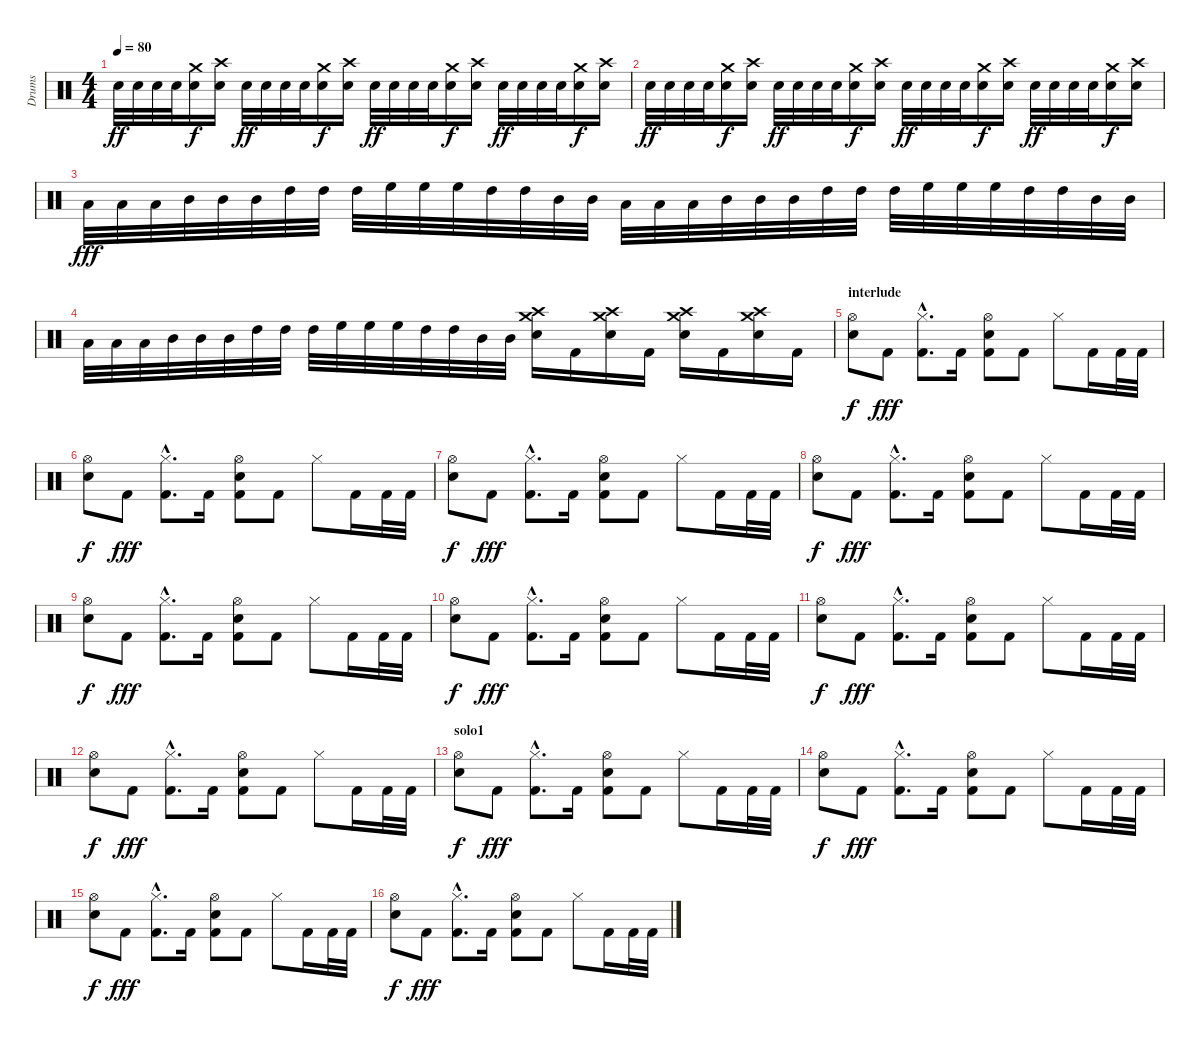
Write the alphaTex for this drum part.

\track ("Drums" "Drums") {instrument percussion}
\staff {score}
\articulation defaults
\ts (4 4)
\tempo 80
\clef neutral
\ks c "Electric Snare (hit)".32{dy ff} "Electric Snare (hit)".32 "Electric Snare (hit)".32 "Electric Snare (hit)".32
("Snare (hit) 2" "Crash medium (hit)").16{dy f} ("Snare (hit) 2" "Crash high (hit)").16 "Electric Snare (hit)".32{dy ff} "Electric Snare (hit)".32 "Electric Snare (hit)".32 "Electric Snare (hit)".32 ("Snare (hit) 2" "Crash medium (hit)").16{dy f} ("Snare (hit) 2" "Crash high (hit)").16 "Electric Snare (hit)".32{dy ff} "Electric Snare (hit)".32 "Electric Snare (hit)".32 "Electric Snare (hit)".32 ("Snare (hit) 2" "Crash medium (hit)").16{dy f} ("Snare (hit) 2" "Crash high (hit)").16 "Electric Snare (hit)".32{dy ff} "Electric Snare (hit)".32 "Electric Snare (hit)".32 "Electric Snare (hit)".32 ("Snare (hit) 2" "Crash medium (hit)").16{dy f} ("Snare (hit) 2" "Crash high (hit)").16 |
"Electric Snare (hit)".32{dy ff} "Electric Snare (hit)".32 "Electric Snare (hit)".32 "Electric Snare (hit)".32 ("Snare (hit) 2" "Crash medium (hit)").16{dy f} ("Snare (hit) 2" "Crash high (hit)").16 "Electric Snare (hit)".32{dy ff} "Electric Snare (hit)".32 "Electric Snare (hit)".32 "Electric Snare (hit)".32 ("Snare (hit) 2" "Crash medium (hit)").16{dy f} ("Snare (hit) 2" "Crash high (hit)").16 "Electric Snare (hit)".32{dy ff} "Electric Snare (hit)".32 "Electric Snare (hit)".32 "Electric Snare (hit)".32 ("Snare (hit) 2" "Crash medium (hit)").16{dy f} ("Snare (hit) 2" "Crash high (hit)").16 "Electric Snare (hit)".32{dy ff} "Electric Snare (hit)".32 "Electric Snare (hit)".32 "Electric Snare (hit)".32 ("Snare (hit) 2" "Crash medium (hit)").16{dy f} ("Snare (hit) 2" "Crash high (hit)").16 |
"Low Tom (hit)".32{dy fff} "Low Tom (hit)".32 "Low Tom (hit)".32 "Mid Tom (hit)".32 "Mid Tom (hit)".32 "Mid Tom (hit)".32 "High Tom (hit)".32 "High Tom (hit)".32 "High Tom (hit)".32 "High Floor Tom (hit)".32 "High Floor Tom (hit)".32 "High Floor Tom (hit)".32 "High Tom (hit)".32 "High Tom (hit)".32 "Mid Tom (hit)".32 "Mid Tom (hit)".32 "Low Tom (hit)".32 "Low Tom (hit)".32 "Low Tom (hit)".32 "Mid Tom (hit)".32 "Mid Tom (hit)".32 "Mid Tom (hit)".32 "High Tom (hit)".32 "High Tom (hit)".32 "High Tom (hit)".32 "High Floor Tom (hit)".32 "High Floor Tom (hit)".32 "High Floor Tom (hit)".32 "High Tom (hit)".32 "High Tom (hit)".32 "Mid Tom (hit)".32 "Mid Tom (hit)".32 |
"Low Tom (hit)".32 "Low Tom (hit)".32 "Low Tom (hit)".32 "Mid Tom (hit)".32 "Mid Tom (hit)".32 "Mid Tom (hit)".32 "High Tom (hit)".32 "High Tom (hit)".32 "High Tom (hit)".32 "High Floor Tom (hit)".32 "High Floor Tom (hit)".32 "High Floor Tom (hit)".32 "High Tom (hit)".32 "High Tom (hit)".32 "Mid Tom (hit)".32 "Mid Tom (hit)".32 ("Crash high (hit)" "Crash medium (hit)" "Electric Snare (hit)").16 "Kick (hit) 2".16 ("Crash high (hit)" "Crash medium (hit)" "Electric Snare (hit)").16 "Kick (hit) 2".16 ("Crash high (hit)" "Crash medium (hit)" "Electric Snare (hit)").16 "Kick (hit) 2".16 ("Crash high (hit)" "Crash medium (hit)" "Electric Snare (hit)").16 "Kick (hit) 2".16 |
\section ("" "interlude")
("Hi-Hat (open)" "Electric Snare (hit)").8{dy f} "Kick (hit) 2".8{dy fff} ("Hi-Hat (closed)"{hac} "Kick (hit) 2"{hac}).8{d} "Kick (hit) 2".16 ("Hi-Hat (open)" "Kick (hit) 2" "Snare (hit) 2").8 "Kick (hit) 2".8 "Hi-Hat (closed)".8 "Kick (hit) 2".16 "Kick (hit) 2".32 "Kick (hit) 2".32 |
("Hi-Hat (open)" "Electric Snare (hit)").8{dy f} "Kick (hit) 2".8{dy fff} ("Hi-Hat (closed)"{hac} "Kick (hit) 2"{hac}).8{d} "Kick (hit) 2".16 ("Hi-Hat (open)" "Kick (hit) 2" "Snare (hit) 2").8 "Kick (hit) 2".8 "Hi-Hat (closed)".8 "Kick (hit) 2".16 "Kick (hit) 2".32 "Kick (hit) 2".32 |
("Hi-Hat (open)" "Electric Snare (hit)").8{dy f} "Kick (hit) 2".8{dy fff} ("Hi-Hat (closed)"{hac} "Kick (hit) 2"{hac}).8{d} "Kick (hit) 2".16 ("Hi-Hat (open)" "Kick (hit) 2" "Snare (hit) 2").8 "Kick (hit) 2".8 "Hi-Hat (closed)".8 "Kick (hit) 2".16 "Kick (hit) 2".32 "Kick (hit) 2".32 |
("Hi-Hat (open)" "Electric Snare (hit)").8{dy f} "Kick (hit) 2".8{dy fff} ("Hi-Hat (closed)"{hac} "Kick (hit) 2"{hac}).8{d} "Kick (hit) 2".16 ("Hi-Hat (open)" "Kick (hit) 2" "Snare (hit) 2").8 "Kick (hit) 2".8 "Hi-Hat (closed)".8 "Kick (hit) 2".16 "Kick (hit) 2".32 "Kick (hit) 2".32 |
("Hi-Hat (open)" "Electric Snare (hit)").8{dy f} "Kick (hit) 2".8{dy fff} ("Hi-Hat (closed)"{hac} "Kick (hit) 2"{hac}).8{d} "Kick (hit) 2".16 ("Hi-Hat (open)" "Kick (hit) 2" "Snare (hit) 2").8 "Kick (hit) 2".8 "Hi-Hat (closed)".8 "Kick (hit) 2".16 "Kick (hit) 2".32 "Kick (hit) 2".32 |
("Hi-Hat (open)" "Electric Snare (hit)").8{dy f} "Kick (hit) 2".8{dy fff} ("Hi-Hat (closed)"{hac} "Kick (hit) 2"{hac}).8{d} "Kick (hit) 2".16 ("Hi-Hat (open)" "Kick (hit) 2" "Snare (hit) 2").8 "Kick (hit) 2".8 "Hi-Hat (closed)".8 "Kick (hit) 2".16 "Kick (hit) 2".32 "Kick (hit) 2".32 |
("Hi-Hat (open)" "Electric Snare (hit)").8{dy f} "Kick (hit) 2".8{dy fff} ("Hi-Hat (closed)"{hac} "Kick (hit) 2"{hac}).8{d} "Kick (hit) 2".16 ("Hi-Hat (open)" "Kick (hit) 2" "Snare (hit) 2").8 "Kick (hit) 2".8 "Hi-Hat (closed)".8 "Kick (hit) 2".16 "Kick (hit) 2".32 "Kick (hit) 2".32 |
("Hi-Hat (open)" "Electric Snare (hit)").8{dy f} "Kick (hit) 2".8{dy fff} ("Hi-Hat (closed)"{hac} "Kick (hit) 2"{hac}).8{d} "Kick (hit) 2".16 ("Hi-Hat (open)" "Kick (hit) 2" "Snare (hit) 2").8 "Kick (hit) 2".8 "Hi-Hat (closed)".8 "Kick (hit) 2".16 "Kick (hit) 2".32 "Kick (hit) 2".32 |
\section ("" "solo1")
("Hi-Hat (open)" "Electric Snare (hit)").8{dy f} "Kick (hit) 2".8{dy fff} ("Hi-Hat (closed)"{hac} "Kick (hit) 2"{hac}).8{d} "Kick (hit) 2".16 ("Hi-Hat (open)" "Kick (hit) 2" "Snare (hit) 2").8 "Kick (hit) 2".8 "Hi-Hat (closed)".8 "Kick (hit) 2".16 "Kick (hit) 2".32 "Kick (hit) 2".32 |
("Hi-Hat (open)" "Electric Snare (hit)").8{dy f} "Kick (hit) 2".8{dy fff} ("Hi-Hat (closed)"{hac} "Kick (hit) 2"{hac}).8{d} "Kick (hit) 2".16 ("Hi-Hat (open)" "Kick (hit) 2" "Snare (hit) 2").8 "Kick (hit) 2".8 "Hi-Hat (closed)".8 "Kick (hit) 2".16 "Kick (hit) 2".32 "Kick (hit) 2".32 |
("Hi-Hat (open)" "Electric Snare (hit)").8{dy f} "Kick (hit) 2".8{dy fff} ("Hi-Hat (closed)"{hac} "Kick (hit) 2"{hac}).8{d} "Kick (hit) 2".16 ("Hi-Hat (open)" "Kick (hit) 2" "Snare (hit) 2").8 "Kick (hit) 2".8 "Hi-Hat (closed)".8 "Kick (hit) 2".16 "Kick (hit) 2".32 "Kick (hit) 2".32 |
("Hi-Hat (open)" "Electric Snare (hit)").8{dy f} "Kick (hit) 2".8{dy fff} ("Hi-Hat (closed)"{hac} "Kick (hit) 2"{hac}).8{d} "Kick (hit) 2".16 ("Hi-Hat (open)" "Kick (hit) 2" "Snare (hit) 2").8 "Kick (hit) 2".8 "Hi-Hat (closed)".8 "Kick (hit) 2".16 "Kick (hit) 2".32 "Kick (hit) 2".32
